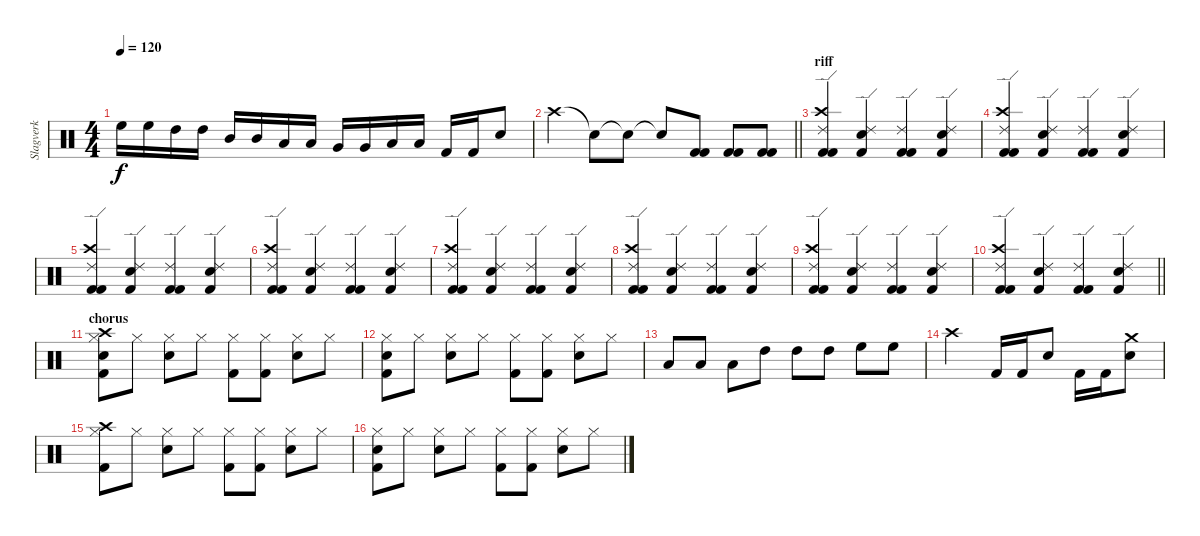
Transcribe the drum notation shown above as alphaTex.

\track ("Slagverk" "Slagverk") {instrument percussion}
\staff {score}
\articulation defaults
\ts (4 4)
\tempo 120
\clef neutral
\ks c "High Floor Tom (hit)".16{dy f} "High Floor Tom (hit)".16 "High Tom (hit)".16 "High Tom (hit)".16 "Mid Tom (hit)".16 "Mid Tom (hit)".16 "Low Tom (hit)".16 "Low Tom (hit)".16 "Very Low Tom (hit)".16 "Very Low Tom (hit)".16 "Low Floor Tom (hit)".16 "Low Floor Tom (hit)".16 "Kick (hit) 2".16 "Kick (hit) 2".16 "Snare (hit) 2".8
|
\barLineRight lightlight "Crash high (hit)".4 "Snare (hit)"{t}.8 "Snare (hit)"{t}.8 "Snare (hit)"{t}.8
("Kick (hit) 2" "Kick (hit) 2").8 ("Kick (hit) 2" "Kick (hit) 2").8 ("Kick (hit) 2" "Kick (hit) 2").8 |
\section ("" "riff")
("Kick (hit) 2" "Kick (hit) 2" "Crash high (hit)" "Ride (edge) 2").4 ("Snare (hit) 2" "Kick (hit) 2" "Ride (edge) 2").4 ("Kick (hit) 2" "Kick (hit) 2" "Ride (edge) 2").4 ("Snare (hit) 2" "Kick (hit) 2" "Ride (edge) 2").4 |
("Kick (hit) 2" "Kick (hit) 2" "Crash high (hit)" "Ride (edge) 2").4 ("Snare (hit) 2" "Kick (hit) 2" "Ride (edge) 2").4 ("Kick (hit) 2" "Kick (hit) 2" "Ride (edge) 2").4 ("Snare (hit) 2" "Kick (hit) 2" "Ride (edge) 2").4 |
("Kick (hit) 2" "Kick (hit) 2" "Crash high (hit)" "Ride (edge) 2").4 ("Snare (hit) 2" "Kick (hit) 2" "Ride (edge) 2").4 ("Kick (hit) 2" "Kick (hit) 2" "Ride (edge) 2").4 ("Snare (hit) 2" "Kick (hit) 2" "Ride (edge) 2").4 |
("Kick (hit) 2" "Kick (hit) 2" "Crash high (hit)" "Ride (edge) 2").4 ("Snare (hit) 2" "Kick (hit) 2" "Ride (edge) 2").4 ("Kick (hit) 2" "Kick (hit) 2" "Ride (edge) 2").4 ("Snare (hit) 2" "Kick (hit) 2" "Ride (edge) 2").4 |
("Kick (hit) 2" "Kick (hit) 2" "Crash high (hit)" "Ride (edge) 2").4 ("Snare (hit) 2" "Kick (hit) 2" "Ride (edge) 2").4 ("Kick (hit) 2" "Kick (hit) 2" "Ride (edge) 2").4 ("Snare (hit) 2" "Kick (hit) 2" "Ride (edge) 2").4 |
("Kick (hit) 2" "Kick (hit) 2" "Crash high (hit)" "Ride (edge) 2").4 ("Snare (hit) 2" "Kick (hit) 2" "Ride (edge) 2").4 ("Kick (hit) 2" "Kick (hit) 2" "Ride (edge) 2").4 ("Snare (hit) 2" "Kick (hit) 2" "Ride (edge) 2").4 |
("Kick (hit) 2" "Kick (hit) 2" "Crash high (hit)" "Ride (edge) 2").4 ("Snare (hit) 2" "Kick (hit) 2" "Ride (edge) 2").4 ("Kick (hit) 2" "Kick (hit) 2" "Ride (edge) 2").4 ("Snare (hit) 2" "Kick (hit) 2" "Ride (edge) 2").4 |
\barLineRight lightlight
("Kick (hit) 2" "Kick (hit) 2" "Crash high (hit)" "Ride (edge) 2").4 ("Snare (hit) 2" "Kick (hit) 2" "Ride (edge) 2").4 ("Kick (hit) 2" "Kick (hit) 2" "Ride (edge) 2").4 ("Snare (hit) 2" "Kick (hit) 2" "Ride (edge) 2").4 |
\section ("" "chorus")
("Snare (hit) 2" "Kick (hit) 2" "Hi-Hat (closed)" "Crash high (hit)").8 "Hi-Hat (closed)".8 ("Snare (hit) 2" "Hi-Hat (closed)").8 "Hi-Hat (closed)".8 ("Kick (hit) 2" "Hi-Hat (closed)").8 ("Kick (hit) 2" "Hi-Hat (closed)").8 ("Snare (hit) 2" "Hi-Hat (closed)").8 "Hi-Hat (closed)".8 |
("Snare (hit) 2" "Kick (hit) 2" "Hi-Hat (closed)").8 "Hi-Hat (closed)".8 ("Snare (hit) 2" "Hi-Hat (closed)").8 "Hi-Hat (closed)".8 ("Kick (hit) 2" "Hi-Hat (closed)").8 ("Kick (hit) 2" "Hi-Hat (closed)").8 ("Snare (hit) 2" "Hi-Hat (closed)").8 "Hi-Hat (closed)".8 |
"Low Tom (hit)".8 "Low Tom (hit)".8 "Low Tom (hit)".8 "High Tom (hit)".8 "High Tom (hit)".8 "High Tom (hit)".8 "High Floor Tom (hit)".8 "High Floor Tom (hit)".8 |
"Crash high (hit)".2 "Kick (hit) 2".16 "Kick (hit) 2".16 "Snare (hit) 2".8 "Kick (hit) 2".16 "Kick (hit) 2".16 ("Snare (hit) 2" "Crash medium (hit)").8 |
("Kick (hit) 2" "Hi-Hat (closed)" "Crash high (hit)").8 "Hi-Hat (closed)".8 ("Snare (hit) 2" "Hi-Hat (closed)").8 "Hi-Hat (closed)".8 ("Kick (hit) 2" "Hi-Hat (closed)").8 ("Kick (hit) 2" "Hi-Hat (closed)").8 ("Snare (hit) 2" "Hi-Hat (closed)").8 "Hi-Hat (closed)".8 |
("Snare (hit) 2" "Kick (hit) 2" "Hi-Hat (closed)").8 "Hi-Hat (closed)".8 ("Snare (hit) 2" "Hi-Hat (closed)").8 "Hi-Hat (closed)".8 ("Kick (hit) 2" "Hi-Hat (closed)").8 ("Kick (hit) 2" "Hi-Hat (closed)").8 ("Snare (hit) 2" "Hi-Hat (closed)").8 "Hi-Hat (closed)".8
